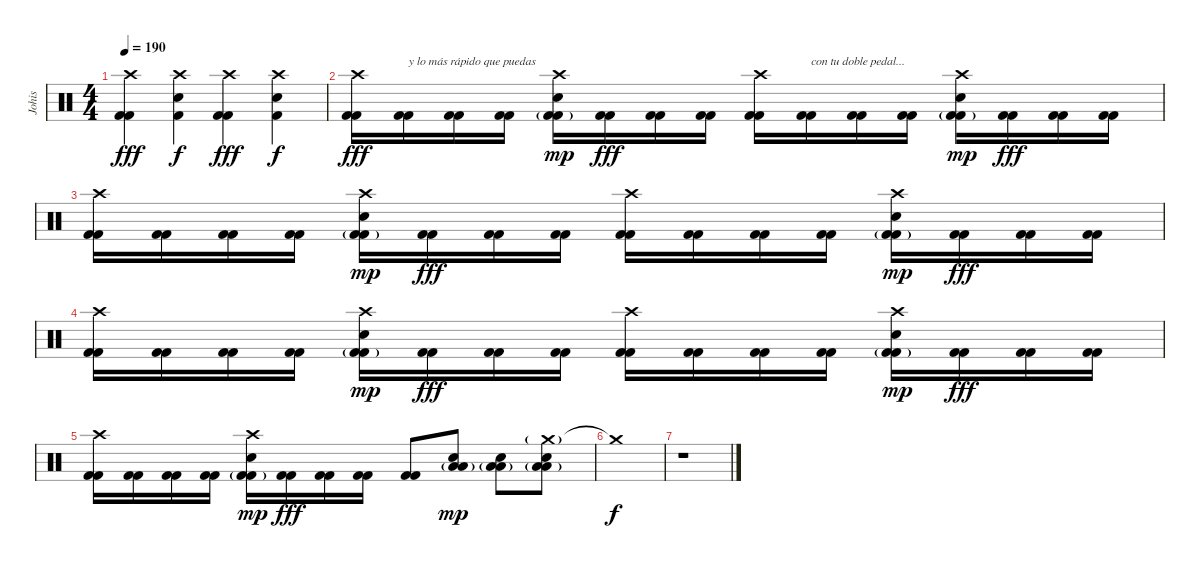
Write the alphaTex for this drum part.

\track ("Johis" "Johis") {instrument percussion}
\staff {score}
\articulation defaults
\ts (4 4)
\tempo 190
\clef neutral
\ks c
("Crash high (hit)" "Kick (hit) 2" "Kick (hit) 2").4{dy fff} ("Crash high (hit)" "Electric Snare (hit)" "Kick (hit) 2").4{dy f} ("Crash high (hit)" "Kick (hit) 2" "Kick (hit) 2").4{dy fff} ("Crash high (hit)" "Electric Snare (hit)" "Kick (hit) 2").4{dy f} |
("Crash high (hit)" "Kick (hit) 2" "Kick (hit) 2").16{dy fff} ("Kick (hit) 2" "Kick (hit) 2").16{txt "y lo más rápido que puedas"} ("Kick (hit) 2" "Kick (hit) 2").16 ("Kick (hit) 2" "Kick (hit) 2").16 ("Crash high (hit)" "Electric Snare (hit)" "Kick (hit) 2"{g} "Kick (hit) 2"{g}).16{dy mp} ("Kick (hit) 2" "Kick (hit) 2").16{dy fff} ("Kick (hit) 2" "Kick (hit) 2").16 ("Kick (hit) 2" "Kick (hit) 2").16 ("Crash high (hit)" "Kick (hit) 2" "Kick (hit) 2").16 ("Kick (hit) 2" "Kick (hit) 2").16{txt "con tu doble pedal..."} ("Kick (hit) 2" "Kick (hit) 2").16 ("Kick (hit) 2" "Kick (hit) 2").16 ("Crash high (hit)" "Electric Snare (hit)" "Kick (hit) 2"{g} "Kick (hit) 2"{g}).16{dy mp} ("Kick (hit) 2" "Kick (hit) 2").16{dy fff} ("Kick (hit) 2" "Kick (hit) 2").16 ("Kick (hit) 2" "Kick (hit) 2").16 |
("Crash high (hit)" "Kick (hit) 2" "Kick (hit) 2").16 ("Kick (hit) 2" "Kick (hit) 2").16 ("Kick (hit) 2" "Kick (hit) 2").16 ("Kick (hit) 2" "Kick (hit) 2").16 ("Crash high (hit)" "Electric Snare (hit)" "Kick (hit) 2"{g} "Kick (hit) 2"{g}).16{dy mp} ("Kick (hit) 2" "Kick (hit) 2").16{dy fff} ("Kick (hit) 2" "Kick (hit) 2").16 ("Kick (hit) 2" "Kick (hit) 2").16 ("Crash high (hit)" "Kick (hit) 2" "Kick (hit) 2").16 ("Kick (hit) 2" "Kick (hit) 2").16 ("Kick (hit) 2" "Kick (hit) 2").16 ("Kick (hit) 2" "Kick (hit) 2").16 ("Crash high (hit)" "Electric Snare (hit)" "Kick (hit) 2"{g} "Kick (hit) 2"{g}).16{dy mp} ("Kick (hit) 2" "Kick (hit) 2").16{dy fff} ("Kick (hit) 2" "Kick (hit) 2").16 ("Kick (hit) 2" "Kick (hit) 2").16 |
("Crash high (hit)" "Kick (hit) 2" "Kick (hit) 2").16 ("Kick (hit) 2" "Kick (hit) 2").16 ("Kick (hit) 2" "Kick (hit) 2").16 ("Kick (hit) 2" "Kick (hit) 2").16 ("Crash high (hit)" "Electric Snare (hit)" "Kick (hit) 2"{g} "Kick (hit) 2"{g}).16{dy mp} ("Kick (hit) 2" "Kick (hit) 2").16{dy fff} ("Kick (hit) 2" "Kick (hit) 2").16 ("Kick (hit) 2" "Kick (hit) 2").16 ("Crash high (hit)" "Kick (hit) 2" "Kick (hit) 2").16 ("Kick (hit) 2" "Kick (hit) 2").16 ("Kick (hit) 2" "Kick (hit) 2").16 ("Kick (hit) 2" "Kick (hit) 2").16 ("Crash high (hit)" "Electric Snare (hit)" "Kick (hit) 2"{g} "Kick (hit) 2"{g}).16{dy mp} ("Kick (hit) 2" "Kick (hit) 2").16{dy fff} ("Kick (hit) 2" "Kick (hit) 2").16 ("Kick (hit) 2" "Kick (hit) 2").16 |
("Crash high (hit)" "Kick (hit) 2" "Kick (hit) 2").16 ("Kick (hit) 2" "Kick (hit) 2").16 ("Kick (hit) 2" "Kick (hit) 2").16 ("Kick (hit) 2" "Kick (hit) 2").16 ("Crash high (hit)" "Electric Snare (hit)" "Kick (hit) 2"{g} "Kick (hit) 2"{g}).16{dy mp} ("Kick (hit) 2" "Kick (hit) 2").16{dy fff} ("Kick (hit) 2" "Kick (hit) 2").16 ("Kick (hit) 2" "Kick (hit) 2").16 ("Kick (hit) 2" "Kick (hit) 2").8 ("Low Tom (hit)"{g} "Electric Snare (hit)" "Low Floor Tom (hit)").8{dy mp} ("Low Tom (hit)"{g} "Electric Snare (hit)" "Low Floor Tom (hit)").8 ("Crash medium (hit)"{g} "Low Tom (hit)"{g} "Electric Snare (hit)" "Low Floor Tom (hit)").8 |
"Crash medium (hit)"{t}.1{dy f} |
r.1
